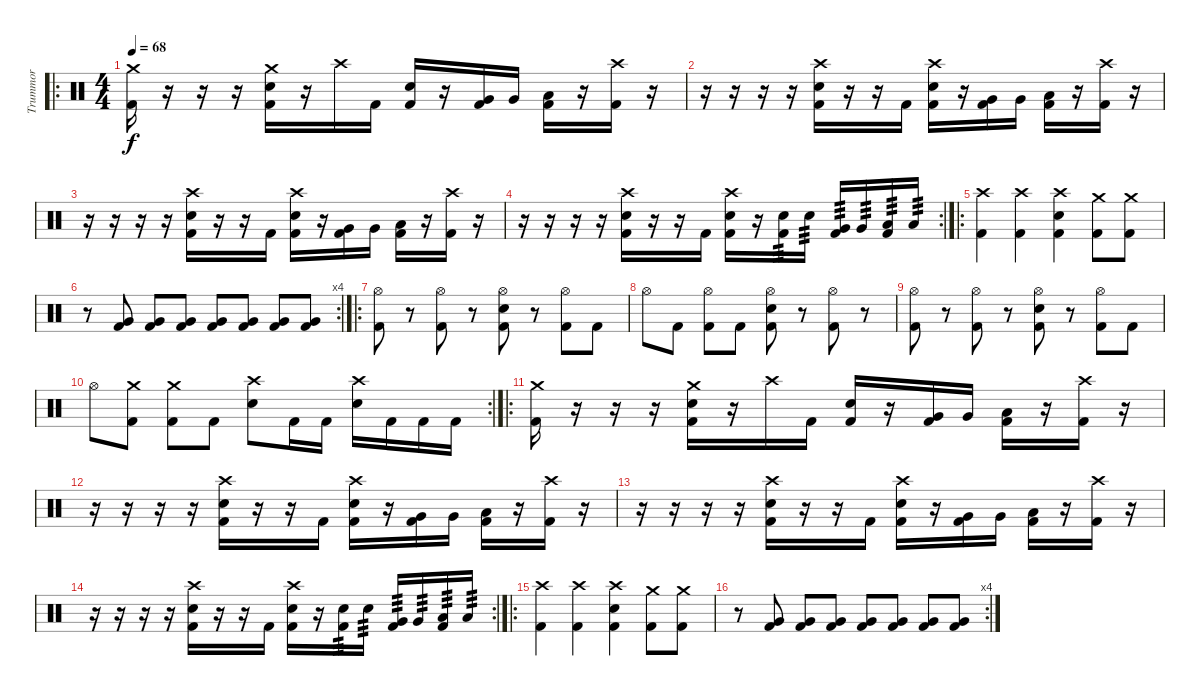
\track ("Trummor" "Trummor") {instrument percussion}
\staff {score}
\articulation defaults
\ro
\ts (4 4)
\tempo 68
\clef neutral
\ks c
("Crash medium (hit)" "Kick (hit) 2").16{dy f} r.16 r.16 r.16 ("Crash medium (hit)" "Snare (hit) 2" "Kick (hit) 2").16 r.16 "Crash high (hit)".16 "Kick (hit) 2".16 ("Snare (hit) 2" "Kick (hit) 2").16 r.16 ("Very Low Tom (hit)" "Kick (hit) 2").16 "Very Low Tom (hit)".16 ("Low Floor Tom (hit)" "Kick (hit) 2").16 r.16 ("Crash high (hit)" "Kick (hit) 2").16 r.16 |
r.16 r.16 r.16 r.16 ("Crash high (hit)" "Snare (hit) 2" "Kick (hit) 2").16 r.16 r.16 "Kick (hit) 2".16 ("Crash high (hit)" "Snare (hit) 2" "Kick (hit) 2").16 r.16 ("Very Low Tom (hit)" "Kick (hit) 2").16 "Very Low Tom (hit)".16 ("Low Floor Tom (hit)" "Kick (hit) 2").16 r.16 ("Crash high (hit)" "Kick (hit) 2").16 r.16 |
r.16 r.16 r.16 r.16 ("Crash high (hit)" "Snare (hit) 2" "Kick (hit) 2").16 r.16 r.16 "Kick (hit) 2".16 ("Crash high (hit)" "Snare (hit) 2" "Kick (hit) 2").16 r.16 ("Very Low Tom (hit)" "Kick (hit) 2").16 "Very Low Tom (hit)".16 ("Low Floor Tom (hit)" "Kick (hit) 2").16 r.16 ("Crash high (hit)" "Kick (hit) 2").16 r.16 |
\rc 2
r.16 r.16 r.16 r.16 ("Crash high (hit)" "Snare (hit) 2" "Kick (hit) 2").16 r.16 r.16 "Kick (hit) 2".16 ("Crash high (hit)" "Snare (hit) 2" "Kick (hit) 2").16 r.16 ("Snare (hit) 2" "Kick (hit) 2").16{tp 3} "Snare (hit) 2".16{tp 3} ("Very Low Tom (hit)" "Kick (hit) 2").16{tp 3} "Very Low Tom (hit)".16{tp 3} ("Low Floor Tom (hit)" "Kick (hit) 2").16{tp 3} "Low Floor Tom (hit)".16{tp 3} |
\ro
("Crash high (hit)" "Kick (hit) 2").4 ("Crash high (hit)" "Kick (hit) 2").4 ("Crash high (hit)" "Snare (hit) 2" "Kick (hit) 2").4 ("Crash medium (hit)" "Kick (hit) 2").8 ("Crash medium (hit)" "Kick (hit) 2").8 |
\rc 4
r.8 ("Very Low Tom (hit)" "Kick (hit) 2").8 ("Very Low Tom (hit)" "Kick (hit) 2").8 ("Very Low Tom (hit)" "Kick (hit) 2").8 ("Very Low Tom (hit)" "Kick (hit) 2").8 ("Very Low Tom (hit)" "Kick (hit) 2").8 ("Very Low Tom (hit)" "Kick (hit) 2").8 ("Very Low Tom (hit)" "Kick (hit) 2").8 |
\ro
("Hi-Hat (open)" "Kick (hit) 2").8 r.8 ("Hi-Hat (open)" "Kick (hit) 2").8 r.8 ("Hi-Hat (open)" "Snare (hit) 2" "Kick (hit) 2").8 r.8 ("Hi-Hat (open)" "Kick (hit) 2").8 "Kick (hit) 2".8 |
"Hi-Hat (open)".8 "Kick (hit) 2".8 ("Hi-Hat (open)" "Kick (hit) 2").8 "Kick (hit) 2".8 ("Hi-Hat (open)" "Snare (hit) 2" "Kick (hit) 2").8 r.8 ("Hi-Hat (open)" "Kick (hit) 2").8 r.8 |
("Hi-Hat (open)" "Kick (hit) 2").8 r.8 ("Hi-Hat (open)" "Kick (hit) 2").8 r.8 ("Hi-Hat (open)" "Snare (hit) 2" "Kick (hit) 2").8 r.8 ("Hi-Hat (open)" "Kick (hit) 2").8 "Kick (hit) 2".8 |
\rc 2 "Hi-Hat (open)".8
("Crash medium (hit)" "Kick (hit) 2").8 ("Crash medium (hit)" "Kick (hit) 2").8 "Kick (hit) 2".8 ("Crash high (hit)" "Snare (hit) 2").8 "Kick (hit) 2".16 "Kick (hit) 2".16 ("Crash high (hit)" "Snare (hit) 2").16 "Kick (hit) 2".16 "Kick (hit) 2".16 "Kick (hit) 2".16 |
\ro
("Crash medium (hit)" "Kick (hit) 2").16 r.16 r.16 r.16 ("Crash medium (hit)" "Snare (hit) 2" "Kick (hit) 2").16 r.16 "Crash high (hit)".16 "Kick (hit) 2".16 ("Snare (hit) 2" "Kick (hit) 2").16 r.16 ("Very Low Tom (hit)" "Kick (hit) 2").16 "Very Low Tom (hit)".16 ("Low Floor Tom (hit)" "Kick (hit) 2").16 r.16 ("Crash high (hit)" "Kick (hit) 2").16 r.16 |
r.16 r.16 r.16 r.16 ("Crash high (hit)" "Snare (hit) 2" "Kick (hit) 2").16 r.16 r.16 "Kick (hit) 2".16 ("Crash high (hit)" "Snare (hit) 2" "Kick (hit) 2").16 r.16 ("Very Low Tom (hit)" "Kick (hit) 2").16 "Very Low Tom (hit)".16 ("Low Floor Tom (hit)" "Kick (hit) 2").16 r.16 ("Crash high (hit)" "Kick (hit) 2").16 r.16 |
r.16 r.16 r.16 r.16 ("Crash high (hit)" "Snare (hit) 2" "Kick (hit) 2").16 r.16 r.16 "Kick (hit) 2".16 ("Crash high (hit)" "Snare (hit) 2" "Kick (hit) 2").16 r.16 ("Very Low Tom (hit)" "Kick (hit) 2").16 "Very Low Tom (hit)".16 ("Low Floor Tom (hit)" "Kick (hit) 2").16 r.16 ("Crash high (hit)" "Kick (hit) 2").16 r.16 |
\rc 2
r.16 r.16 r.16 r.16 ("Crash high (hit)" "Snare (hit) 2" "Kick (hit) 2").16 r.16 r.16 "Kick (hit) 2".16 ("Crash high (hit)" "Snare (hit) 2" "Kick (hit) 2").16 r.16 ("Snare (hit) 2" "Kick (hit) 2").16{tp 3} "Snare (hit) 2".16{tp 3} ("Very Low Tom (hit)" "Kick (hit) 2").16{tp 3} "Very Low Tom (hit)".16{tp 3} ("Low Floor Tom (hit)" "Kick (hit) 2").16{tp 3} "Low Floor Tom (hit)".16{tp 3} |
\ro
("Crash high (hit)" "Kick (hit) 2").4 ("Crash high (hit)" "Kick (hit) 2").4 ("Crash high (hit)" "Snare (hit) 2" "Kick (hit) 2").4 ("Crash medium (hit)" "Kick (hit) 2").8 ("Crash medium (hit)" "Kick (hit) 2").8 |
\rc 4
r.8 ("Very Low Tom (hit)" "Kick (hit) 2").8 ("Very Low Tom (hit)" "Kick (hit) 2").8 ("Very Low Tom (hit)" "Kick (hit) 2").8 ("Very Low Tom (hit)" "Kick (hit) 2").8 ("Very Low Tom (hit)" "Kick (hit) 2").8 ("Very Low Tom (hit)" "Kick (hit) 2").8 ("Very Low Tom (hit)" "Kick (hit) 2").8
